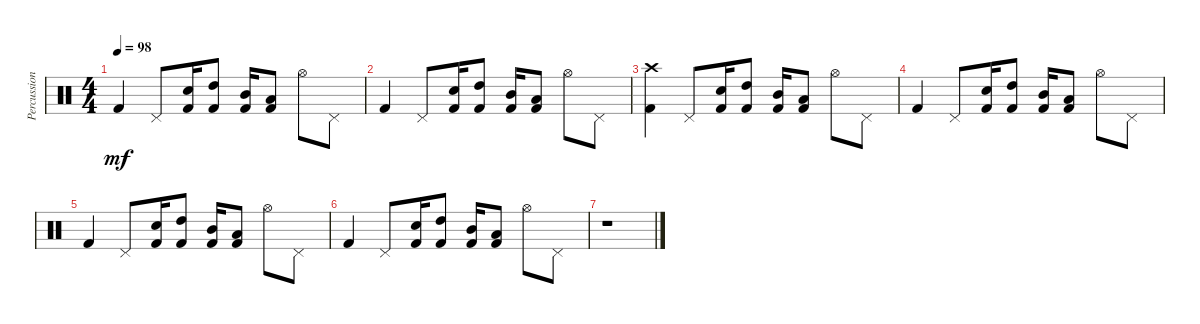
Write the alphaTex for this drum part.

\track ("Percussion" "Percussion") {instrument percussion}
\staff {score}
\articulation defaults
\ts (4 4)
\tempo 98
\clef neutral
\ks c "Kick (hit) 2".4{dy mf} "Pedal Hi-Hat (hit)".8
("Snare (hit) 2" "Kick (hit) 2").16 ("High Tom (hit)" "Kick (hit) 2").8 ("Mid Tom (hit)" "Kick (hit) 2").16 ("Low Tom (hit)" "Kick (hit) 2").8 "Hi-Hat (open)".8 "Pedal Hi-Hat (hit)".8 |
"Kick (hit) 2".4 "Pedal Hi-Hat (hit)".8 ("Snare (hit) 2" "Kick (hit) 2").16 ("High Tom (hit)" "Kick (hit) 2").8 ("Mid Tom (hit)" "Kick (hit) 2").16 ("Low Tom (hit)" "Kick (hit) 2").8 "Hi-Hat (open)".8 "Pedal Hi-Hat (hit)".8 |
("Crash high (hit)" "Kick (hit) 2").4 "Pedal Hi-Hat (hit)".8 ("Snare (hit) 2" "Kick (hit) 2").16 ("High Tom (hit)" "Kick (hit) 2").8 ("Mid Tom (hit)" "Kick (hit) 2").16 ("Low Tom (hit)" "Kick (hit) 2").8 "Hi-Hat (open)".8 "Pedal Hi-Hat (hit)".8 |
"Kick (hit) 2".4 "Pedal Hi-Hat (hit)".8 ("Snare (hit) 2" "Kick (hit) 2").16 ("High Tom (hit)" "Kick (hit) 2").8 ("Mid Tom (hit)" "Kick (hit) 2").16 ("Low Tom (hit)" "Kick (hit) 2").8 "Hi-Hat (open)".8 "Pedal Hi-Hat (hit)".8 |
"Kick (hit) 2".4 "Pedal Hi-Hat (hit)".8 ("Snare (hit) 2" "Kick (hit) 2").16 ("High Tom (hit)" "Kick (hit) 2").8 ("Mid Tom (hit)" "Kick (hit) 2").16 ("Low Tom (hit)" "Kick (hit) 2").8 "Hi-Hat (open)".8 "Pedal Hi-Hat (hit)".8 |
"Kick (hit) 2".4 "Pedal Hi-Hat (hit)".8 ("Snare (hit) 2" "Kick (hit) 2").16 ("High Tom (hit)" "Kick (hit) 2").8 ("Mid Tom (hit)" "Kick (hit) 2").16 ("Low Tom (hit)" "Kick (hit) 2").8 "Hi-Hat (open)".8 "Pedal Hi-Hat (hit)".8 |
r.1
